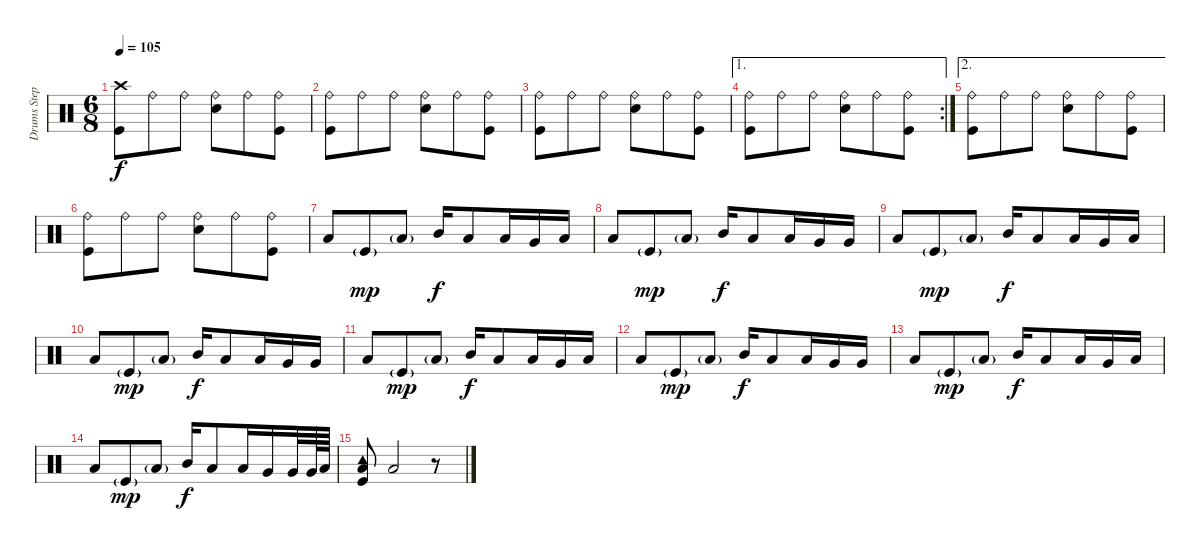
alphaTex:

\track ("Drums Stephen van Haestregt" "Drums Step") {instrument percussion}
\staff {score}
\articulation defaults
\ts (6 8)
\tempo 105
\clef neutral
\ks c
("Kick (hit)" "Crash high (hit)").8{dy f} "Ride (bell)".8 "Ride (bell)".8 ("Snare (hit) 2" "Ride (bell)").8 "Ride (bell)".8 ("Kick (hit)" "Ride (bell)").8 |
("Kick (hit)" "Ride (bell)").8 "Ride (bell)".8 "Ride (bell)".8 ("Snare (hit) 2" "Ride (bell)").8 "Ride (bell)".8 ("Kick (hit)" "Ride (bell)").8 |
("Kick (hit)" "Ride (bell)").8 "Ride (bell)".8 "Ride (bell)".8 ("Snare (hit) 2" "Ride (bell)").8 "Ride (bell)".8 ("Kick (hit)" "Ride (bell)").8 |
\ae 1
\rc 2
("Kick (hit)" "Ride (bell)").8 "Ride (bell)".8 "Ride (bell)".8 ("Snare (hit) 2" "Ride (bell)").8 "Ride (bell)".8 ("Kick (hit)" "Ride (bell)").8 |
\ae 2
("Kick (hit)" "Ride (bell)").8 "Ride (bell)".8 "Ride (bell)".8 ("Snare (hit) 2" "Ride (bell)").8 "Ride (bell)".8 ("Kick (hit)" "Ride (bell)").8 |
("Kick (hit)" "Ride (bell)").8 "Ride (bell)".8 "Ride (bell)".8 ("Snare (hit) 2" "Ride (bell)").8 "Ride (bell)".8 ("Kick (hit)" "Ride (bell)").8 |
"Low Floor Tom (hit)".8 "Kick (hit)"{g}.8{dy mp} "Low Floor Tom (hit)"{g}.8 "Mid Tom (hit)".16{dy f} "Low Tom (hit)".8 "Low Tom (hit)".16 "Very Low Tom (hit)".16 "Low Tom (hit)".16 |
"Low Floor Tom (hit)".8 "Kick (hit)"{g}.8{dy mp} "Low Floor Tom (hit)"{g}.8 "Mid Tom (hit)".16{dy f} "Low Tom (hit)".8 "Low Tom (hit)".16 "Very Low Tom (hit)".16 "Very Low Tom (hit)".16 |
"Low Floor Tom (hit)".8 "Kick (hit)"{g}.8{dy mp} "Low Floor Tom (hit)"{g}.8 "Mid Tom (hit)".16{dy f} "Low Tom (hit)".8 "Low Tom (hit)".16 "Very Low Tom (hit)".16 "Low Tom (hit)".16 |
"Low Floor Tom (hit)".8 "Kick (hit)"{g}.8{dy mp} "Low Floor Tom (hit)"{g}.8 "Mid Tom (hit)".16{dy f} "Low Tom (hit)".8 "Low Tom (hit)".16 "Very Low Tom (hit)".16 "Very Low Tom (hit)".16 |
"Low Floor Tom (hit)".8 "Kick (hit)"{g}.8{dy mp} "Low Floor Tom (hit)"{g}.8 "Mid Tom (hit)".16{dy f} "Low Tom (hit)".8 "Low Tom (hit)".16 "Very Low Tom (hit)".16 "Low Tom (hit)".16 |
"Low Floor Tom (hit)".8 "Kick (hit)"{g}.8{dy mp} "Low Floor Tom (hit)"{g}.8 "Mid Tom (hit)".16{dy f} "Low Tom (hit)".8 "Low Tom (hit)".16 "Very Low Tom (hit)".16 "Very Low Tom (hit)".16 |
"Low Floor Tom (hit)".8 "Kick (hit)"{g}.8{dy mp} "Low Floor Tom (hit)"{g}.8 "Mid Tom (hit)".16{dy f} "Low Tom (hit)".8 "Low Tom (hit)".16 "Very Low Tom (hit)".16 "Low Tom (hit)".16 |
"Low Floor Tom (hit)".8 "Kick (hit)"{g}.8{dy mp} "Low Floor Tom (hit)"{g}.8 "Mid Tom (hit)".16{dy f} "Low Tom (hit)".8 "Low Tom (hit)".16 "Very Low Tom (hit)".16 "Very Low Tom (hit)".32 "Very Low Tom (hit)".64 "Low Floor Tom (hit)".64 |
("Tambourine (hit)" "Kick (hit)" "Low Floor Tom (hit)").8 "Low Floor Tom (hit)".2 r.8
